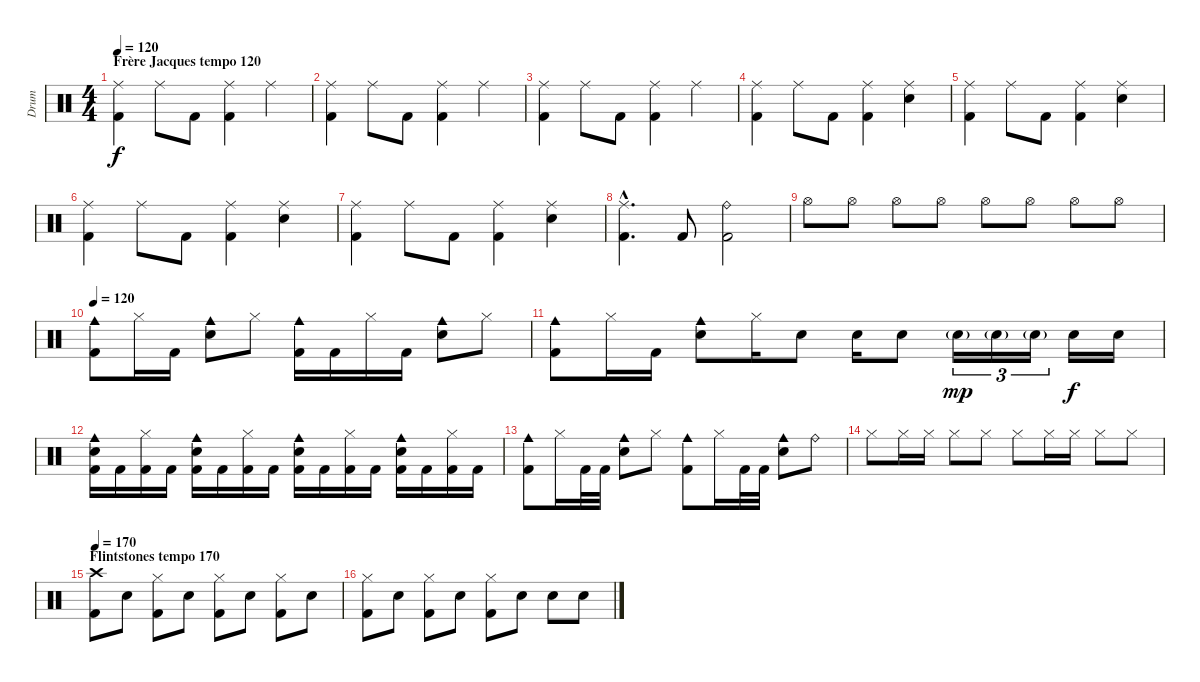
\track ("Drum" "Drum") {instrument percussion}
\staff {score}
\articulation defaults
\ts (4 4)
\section ("" "Frère Jacques tempo 120")
\tempo 120
\clef neutral
\ks c
("Ride (middle)" "Kick (hit) 2").4{dy f} "Ride (middle)".8 "Kick (hit) 2".8 ("Ride (middle)" "Kick (hit) 2").4 "Ride (middle)".4 |
("Ride (middle)" "Kick (hit) 2").4 "Ride (middle)".8 "Kick (hit) 2".8 ("Ride (middle)" "Kick (hit) 2").4 "Ride (middle)".4 |
("Ride (middle)" "Kick (hit) 2").4 "Ride (middle)".8 "Kick (hit) 2".8 ("Ride (middle)" "Kick (hit) 2").4 "Ride (middle)".4 |
("Ride (middle)" "Kick (hit) 2").4 "Ride (middle)".8 "Kick (hit) 2".8 ("Ride (middle)" "Kick (hit) 2").4 ("Ride (middle)" "Electric Snare (hit)").4 |
("Ride (middle)" "Kick (hit) 2").4 "Ride (middle)".8 "Kick (hit) 2".8 ("Ride (middle)" "Kick (hit) 2").4 ("Ride (middle)" "Electric Snare (hit)").4 |
("Ride (middle)" "Kick (hit) 2").4 "Ride (middle)".8 "Kick (hit) 2".8 ("Ride (middle)" "Kick (hit) 2").4 ("Ride (middle)" "Electric Snare (hit)").4 |
("Ride (middle)" "Kick (hit) 2").4 "Ride (middle)".8 "Kick (hit) 2".8 ("Ride (middle)" "Kick (hit) 2").4 ("Ride (middle)" "Electric Snare (hit)").4 |
("Ride (middle)"{hac} "Kick (hit) 2"{hac}).4{d} "Kick (hit) 2".8 ("Ride (bell)" "Kick (hit) 2").2 |
"Hi-Hat (open)".8 "Hi-Hat (open)".8 "Hi-Hat (open)".8 "Hi-Hat (open)".8 "Hi-Hat (open)".8 "Hi-Hat (open)".8 "Hi-Hat (open)".8 "Hi-Hat (open)".8 |
\tempo 120
("Cowbell medium (hit)" "Kick (hit) 2").8 "Hi-Hat (closed)".16 "Kick (hit) 2".16 ("Cowbell medium (hit)" "Electric Snare (hit)").8 "Hi-Hat (closed)".8 ("Cowbell medium (hit)" "Kick (hit) 2").16 "Kick (hit) 2".16 "Hi-Hat (closed)".16 "Kick (hit) 2".16 ("Cowbell medium (hit)" "Electric Snare (hit)").8 "Hi-Hat (closed)".8 |
("Cowbell medium (hit)" "Kick (hit) 2").8 "Hi-Hat (closed)".16 "Kick (hit) 2".16 ("Cowbell medium (hit)" "Electric Snare (hit)").8 "Hi-Hat (closed)".16 "Electric Snare (hit)".8 "Electric Snare (hit)".16 "Electric Snare (hit)".8 "Electric Snare (hit)"{g}.16{tu (3 2) dy mp} "Electric Snare (hit)"{g}.16{tu (3 2)} "Electric Snare (hit)"{g}.16{tu (3 2)} "Electric Snare (hit)".16{dy f} "Electric Snare (hit)".16 |
("Cowbell medium (hit)" "Electric Snare (hit)" "Kick (hit) 2").16 "Kick (hit) 2".16 ("Hi-Hat (closed)" "Kick (hit) 2").16 "Kick (hit) 2".16 ("Cowbell medium (hit)" "Electric Snare (hit)" "Kick (hit) 2").16 "Kick (hit) 2".16 ("Hi-Hat (closed)" "Kick (hit) 2").16 "Kick (hit) 2".16 ("Cowbell medium (hit)" "Electric Snare (hit)" "Kick (hit) 2").16 "Kick (hit) 2".16 ("Hi-Hat (closed)" "Kick (hit) 2").16 "Kick (hit) 2".16 ("Cowbell medium (hit)" "Electric Snare (hit)" "Kick (hit) 2").16 "Kick (hit) 2".16 ("Hi-Hat (closed)" "Kick (hit) 2").16 "Kick (hit) 2".16 |
("Cowbell medium (hit)" "Kick (hit) 2").8 "Hi-Hat (closed)".16 "Kick (hit) 2".32 "Kick (hit) 2".32 ("Cowbell medium (hit)" "Electric Snare (hit)").8 "Hi-Hat (closed)".8 ("Cowbell medium (hit)" "Kick (hit) 2").8 "Hi-Hat (closed)".16 "Kick (hit) 2".32 "Kick (hit) 2".32 ("Cowbell medium (hit)" "Electric Snare (hit)").8 "Ride (bell)".8 |
"Hi-Hat (closed)".8 "Hi-Hat (closed)".16 "Hi-Hat (closed)".16 "Hi-Hat (closed)".8 "Hi-Hat (closed)".8 "Hi-Hat (closed)".8 "Hi-Hat (closed)".16 "Hi-Hat (closed)".16 "Hi-Hat (closed)".8 "Hi-Hat (closed)".8 |
\section ("" "Flintstones tempo 170")
\tempo 170
("Crash high (hit)" "Kick (hit) 2").8 "Electric Snare (hit)".8 ("Hi-Hat (closed)" "Kick (hit) 2").8 "Electric Snare (hit)".8 ("Hi-Hat (closed)" "Kick (hit) 2").8 "Electric Snare (hit)".8 ("Hi-Hat (closed)" "Kick (hit) 2").8 "Electric Snare (hit)".8 |
("Hi-Hat (closed)" "Kick (hit) 2").8 "Electric Snare (hit)".8 ("Hi-Hat (closed)" "Kick (hit) 2").8 "Electric Snare (hit)".8 ("Hi-Hat (closed)" "Kick (hit) 2").8 "Electric Snare (hit)".8 "Electric Snare (hit)".8 "Electric Snare (hit)".8
